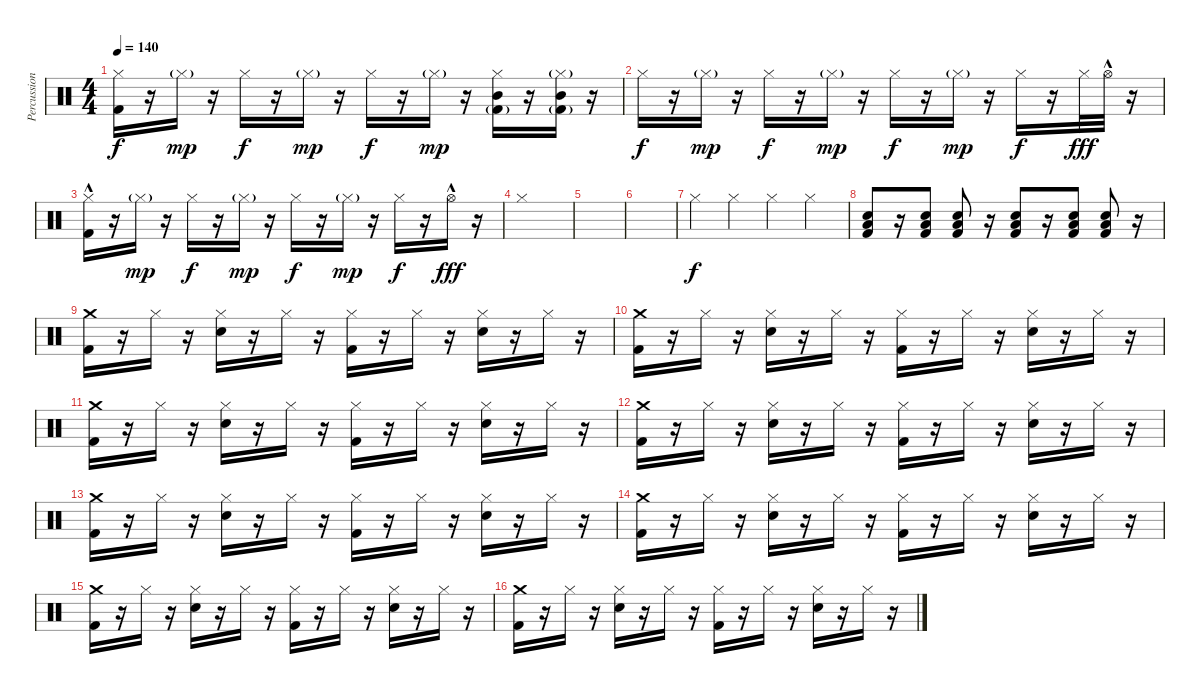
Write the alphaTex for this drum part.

\track ("Percussion" "Percussion") {instrument percussion}
\staff {score}
\articulation defaults
\ts (4 4)
\tempo 140
\clef neutral
\ks c
("Hi-Hat (closed)" "Kick (hit) 2").16{dy f} r.16 "Hi-Hat (closed)"{g}.16{dy mp} r.16 "Hi-Hat (closed)".16{dy f} r.16 "Hi-Hat (closed)"{g}.16{dy mp} r.16 "Hi-Hat (closed)".16{dy f} r.16 "Hi-Hat (closed)"{g}.16{dy mp} r.16 ("Hi-Hat (closed)" "Mid Tom (hit)" "Kick (hit) 2"{g}).16 r.16 ("Hi-Hat (closed)"{g} "Mid Tom (hit)" "Kick (hit) 2"{g}).16 r.16 |
"Hi-Hat (closed)".16{dy f} r.16 "Hi-Hat (closed)"{g}.16{dy mp} r.16 "Hi-Hat (closed)".16{dy f} r.16 "Hi-Hat (closed)"{g}.16{dy mp} r.16 "Hi-Hat (closed)".16{dy f} r.16 "Hi-Hat (closed)"{g}.16{dy mp} r.16 "Hi-Hat (closed)".16{dy f} r.16 "Hi-Hat (closed)".32{dy fff} "Hi-Hat (open)"{hac}.32 r.16 |
("Hi-Hat (closed)" "Kick (hit) 2"{hac}).16 r.16 "Hi-Hat (closed)"{g}.16{dy mp} r.16 "Hi-Hat (closed)".16{dy f} r.16 "Hi-Hat (closed)"{g}.16{dy mp} r.16 "Hi-Hat (closed)".16{dy f} r.16 "Hi-Hat (closed)"{g}.16{dy mp} r.16 "Hi-Hat (closed)".16{dy f} r.16 "Hi-Hat (open)"{hac}.16{dy fff} r.16 |
"Hi-Hat (closed)".1 |
|
|
"Hi-Hat (closed)".4{dy f} "Hi-Hat (closed)".4 "Hi-Hat (closed)".4 "Hi-Hat (closed)".4 |
("Low Floor Tom (hit)" "Snare (hit) 2" "Kick (hit) 2").8 r.16 ("Low Floor Tom (hit)" "Snare (hit) 2" "Kick (hit) 2").8 ("Low Floor Tom (hit)" "Snare (hit) 2" "Kick (hit) 2").8 r.16 ("Low Floor Tom (hit)" "Snare (hit) 2" "Kick (hit) 2").8 r.16 ("Low Floor Tom (hit)" "Snare (hit) 2" "Kick (hit) 2").8 ("Low Floor Tom (hit)" "Snare (hit) 2" "Kick (hit) 2").8 r.16 |
("Crash medium (hit)" "Kick (hit) 2").16 r.16 "Hi-Hat (closed)".16 r.16 ("Hi-Hat (closed)" "Snare (hit) 2").16 r.16 "Hi-Hat (closed)".16 r.16 ("Hi-Hat (closed)" "Kick (hit) 2").16 r.16 "Hi-Hat (closed)".16 r.16 ("Hi-Hat (closed)" "Snare (hit) 2").16 r.16 "Hi-Hat (closed)".16 r.16 |
("Crash medium (hit)" "Kick (hit) 2").16 r.16 "Hi-Hat (closed)".16 r.16 ("Hi-Hat (closed)" "Snare (hit) 2").16 r.16 "Hi-Hat (closed)".16 r.16 ("Hi-Hat (closed)" "Kick (hit) 2").16 r.16 "Hi-Hat (closed)".16 r.16 ("Hi-Hat (closed)" "Snare (hit) 2").16 r.16 "Hi-Hat (closed)".16 r.16 |
("Crash medium (hit)" "Kick (hit) 2").16 r.16 "Hi-Hat (closed)".16 r.16 ("Hi-Hat (closed)" "Snare (hit) 2").16 r.16 "Hi-Hat (closed)".16 r.16 ("Hi-Hat (closed)" "Kick (hit) 2").16 r.16 "Hi-Hat (closed)".16 r.16 ("Hi-Hat (closed)" "Snare (hit) 2").16 r.16 "Hi-Hat (closed)".16 r.16 |
("Crash medium (hit)" "Kick (hit) 2").16 r.16 "Hi-Hat (closed)".16 r.16 ("Hi-Hat (closed)" "Snare (hit) 2").16 r.16 "Hi-Hat (closed)".16 r.16 ("Hi-Hat (closed)" "Kick (hit) 2").16 r.16 "Hi-Hat (closed)".16 r.16 ("Hi-Hat (closed)" "Snare (hit) 2").16 r.16 "Hi-Hat (closed)".16 r.16 |
("Crash medium (hit)" "Kick (hit) 2").16 r.16 "Hi-Hat (closed)".16 r.16 ("Hi-Hat (closed)" "Snare (hit) 2").16 r.16 "Hi-Hat (closed)".16 r.16 ("Hi-Hat (closed)" "Kick (hit) 2").16 r.16 "Hi-Hat (closed)".16 r.16 ("Hi-Hat (closed)" "Snare (hit) 2").16 r.16 "Hi-Hat (closed)".16 r.16 |
("Crash medium (hit)" "Kick (hit) 2").16 r.16 "Hi-Hat (closed)".16 r.16 ("Hi-Hat (closed)" "Snare (hit) 2").16 r.16 "Hi-Hat (closed)".16 r.16 ("Hi-Hat (closed)" "Kick (hit) 2").16 r.16 "Hi-Hat (closed)".16 r.16 ("Hi-Hat (closed)" "Snare (hit) 2").16 r.16 "Hi-Hat (closed)".16 r.16 |
("Crash medium (hit)" "Kick (hit) 2").16 r.16 "Hi-Hat (closed)".16 r.16 ("Hi-Hat (closed)" "Snare (hit) 2").16 r.16 "Hi-Hat (closed)".16 r.16 ("Hi-Hat (closed)" "Kick (hit) 2").16 r.16 "Hi-Hat (closed)".16 r.16 ("Hi-Hat (closed)" "Snare (hit) 2").16 r.16 "Hi-Hat (closed)".16 r.16 |
("Crash medium (hit)" "Kick (hit) 2").16 r.16 "Hi-Hat (closed)".16 r.16 ("Hi-Hat (closed)" "Snare (hit) 2").16 r.16 "Hi-Hat (closed)".16 r.16 ("Hi-Hat (closed)" "Kick (hit) 2").16 r.16 "Hi-Hat (closed)".16 r.16 ("Hi-Hat (closed)" "Snare (hit) 2").16 r.16 "Hi-Hat (closed)".16 r.16
